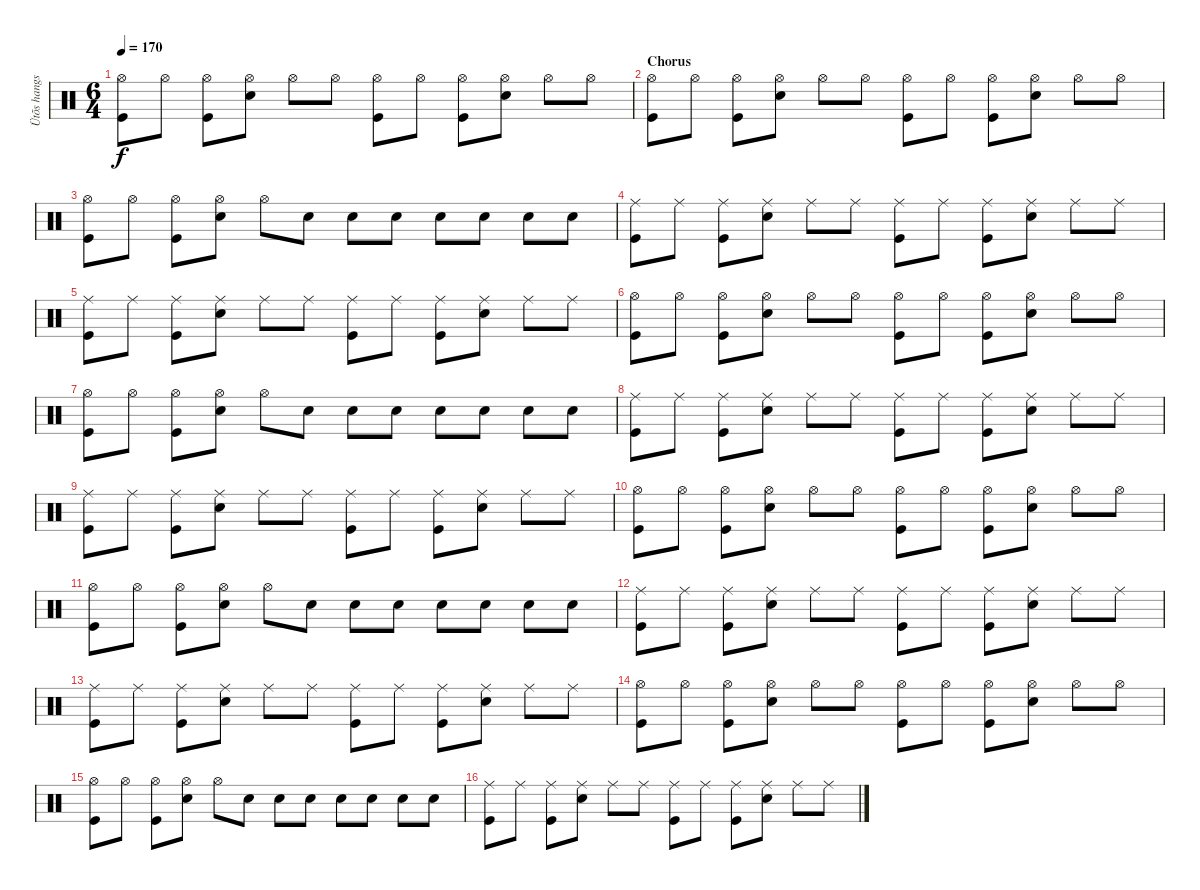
\track ("Ütõs hangszer" "Ütõs hangs") {instrument percussion}
\staff {score}
\articulation defaults
\ts (6 4)
\tempo 170
\clef neutral
\ks c
("Hi-Hat (open)" "Kick (hit)").8{dy f} "Hi-Hat (open)".8 ("Hi-Hat (open)" "Kick (hit)").8 ("Hi-Hat (open)" "Snare (hit) 2").8 "Hi-Hat (open)".8 "Hi-Hat (open)".8 ("Hi-Hat (open)" "Kick (hit)").8 "Hi-Hat (open)".8 ("Hi-Hat (open)" "Kick (hit)").8 ("Hi-Hat (open)" "Snare (hit) 2").8 "Hi-Hat (open)".8 "Hi-Hat (open)".8 |
\section ("" "Chorus")
("Hi-Hat (open)" "Kick (hit)").8 "Hi-Hat (open)".8 ("Hi-Hat (open)" "Kick (hit)").8 ("Hi-Hat (open)" "Snare (hit) 2").8 "Hi-Hat (open)".8 "Hi-Hat (open)".8 ("Hi-Hat (open)" "Kick (hit)").8 "Hi-Hat (open)".8 ("Hi-Hat (open)" "Kick (hit)").8 ("Hi-Hat (open)" "Snare (hit) 2").8 "Hi-Hat (open)".8 "Hi-Hat (open)".8 |
("Hi-Hat (open)" "Kick (hit)").8 "Hi-Hat (open)".8 ("Hi-Hat (open)" "Kick (hit)").8 ("Hi-Hat (open)" "Snare (hit) 2").8 "Hi-Hat (open)".8 "Snare (hit) 2".8 "Snare (hit) 2".8 "Snare (hit) 2".8 "Snare (hit) 2".8 "Snare (hit) 2".8 "Snare (hit) 2".8 "Snare (hit) 2".8 |
("Ride (middle)" "Kick (hit)").8 "Ride (middle)".8 ("Ride (middle)" "Kick (hit)").8 ("Ride (middle)" "Snare (hit) 2").8 "Ride (middle)".8 "Ride (middle)".8 ("Ride (middle)" "Kick (hit)").8 "Ride (middle)".8 ("Ride (middle)" "Kick (hit)").8 ("Ride (middle)" "Snare (hit) 2").8 "Ride (middle)".8 "Ride (middle)".8 |
("Ride (middle)" "Kick (hit)").8 "Ride (middle)".8 ("Ride (middle)" "Kick (hit)").8 ("Ride (middle)" "Snare (hit) 2").8 "Ride (middle)".8 "Ride (middle)".8 ("Ride (middle)" "Kick (hit)").8 "Ride (middle)".8 ("Ride (middle)" "Kick (hit)").8 ("Ride (middle)" "Snare (hit) 2").8 "Ride (middle)".8 "Ride (middle)".8 |
("Hi-Hat (open)" "Kick (hit)").8 "Hi-Hat (open)".8 ("Hi-Hat (open)" "Kick (hit)").8 ("Hi-Hat (open)" "Snare (hit) 2").8 "Hi-Hat (open)".8 "Hi-Hat (open)".8 ("Hi-Hat (open)" "Kick (hit)").8 "Hi-Hat (open)".8 ("Hi-Hat (open)" "Kick (hit)").8 ("Hi-Hat (open)" "Snare (hit) 2").8 "Hi-Hat (open)".8 "Hi-Hat (open)".8 |
("Hi-Hat (open)" "Kick (hit)").8 "Hi-Hat (open)".8 ("Hi-Hat (open)" "Kick (hit)").8 ("Hi-Hat (open)" "Snare (hit) 2").8 "Hi-Hat (open)".8 "Snare (hit) 2".8 "Snare (hit) 2".8 "Snare (hit) 2".8 "Snare (hit) 2".8 "Snare (hit) 2".8 "Snare (hit) 2".8 "Snare (hit) 2".8 |
("Ride (middle)" "Kick (hit)").8 "Ride (middle)".8 ("Ride (middle)" "Kick (hit)").8 ("Ride (middle)" "Snare (hit) 2").8 "Ride (middle)".8 "Ride (middle)".8 ("Ride (middle)" "Kick (hit)").8 "Ride (middle)".8 ("Ride (middle)" "Kick (hit)").8 ("Ride (middle)" "Snare (hit) 2").8 "Ride (middle)".8 "Ride (middle)".8 |
("Ride (middle)" "Kick (hit)").8 "Ride (middle)".8 ("Ride (middle)" "Kick (hit)").8 ("Ride (middle)" "Snare (hit) 2").8 "Ride (middle)".8 "Ride (middle)".8 ("Ride (middle)" "Kick (hit)").8 "Ride (middle)".8 ("Ride (middle)" "Kick (hit)").8 ("Ride (middle)" "Snare (hit) 2").8 "Ride (middle)".8 "Ride (middle)".8 |
("Hi-Hat (open)" "Kick (hit)").8 "Hi-Hat (open)".8 ("Hi-Hat (open)" "Kick (hit)").8 ("Hi-Hat (open)" "Snare (hit) 2").8 "Hi-Hat (open)".8 "Hi-Hat (open)".8 ("Hi-Hat (open)" "Kick (hit)").8 "Hi-Hat (open)".8 ("Hi-Hat (open)" "Kick (hit)").8 ("Hi-Hat (open)" "Snare (hit) 2").8 "Hi-Hat (open)".8 "Hi-Hat (open)".8 |
("Hi-Hat (open)" "Kick (hit)").8 "Hi-Hat (open)".8 ("Hi-Hat (open)" "Kick (hit)").8 ("Hi-Hat (open)" "Snare (hit) 2").8 "Hi-Hat (open)".8 "Snare (hit) 2".8 "Snare (hit) 2".8 "Snare (hit) 2".8 "Snare (hit) 2".8 "Snare (hit) 2".8 "Snare (hit) 2".8 "Snare (hit) 2".8 |
("Ride (middle)" "Kick (hit)").8 "Ride (middle)".8 ("Ride (middle)" "Kick (hit)").8 ("Ride (middle)" "Snare (hit) 2").8 "Ride (middle)".8 "Ride (middle)".8 ("Ride (middle)" "Kick (hit)").8 "Ride (middle)".8 ("Ride (middle)" "Kick (hit)").8 ("Ride (middle)" "Snare (hit) 2").8 "Ride (middle)".8 "Ride (middle)".8 |
("Ride (middle)" "Kick (hit)").8 "Ride (middle)".8 ("Ride (middle)" "Kick (hit)").8 ("Ride (middle)" "Snare (hit) 2").8 "Ride (middle)".8 "Ride (middle)".8 ("Ride (middle)" "Kick (hit)").8 "Ride (middle)".8 ("Ride (middle)" "Kick (hit)").8 ("Ride (middle)" "Snare (hit) 2").8 "Ride (middle)".8 "Ride (middle)".8 |
("Hi-Hat (open)" "Kick (hit)").8 "Hi-Hat (open)".8 ("Hi-Hat (open)" "Kick (hit)").8 ("Hi-Hat (open)" "Snare (hit) 2").8 "Hi-Hat (open)".8 "Hi-Hat (open)".8 ("Hi-Hat (open)" "Kick (hit)").8 "Hi-Hat (open)".8 ("Hi-Hat (open)" "Kick (hit)").8 ("Hi-Hat (open)" "Snare (hit) 2").8 "Hi-Hat (open)".8 "Hi-Hat (open)".8 |
("Hi-Hat (open)" "Kick (hit)").8 "Hi-Hat (open)".8 ("Hi-Hat (open)" "Kick (hit)").8 ("Hi-Hat (open)" "Snare (hit) 2").8 "Hi-Hat (open)".8 "Snare (hit) 2".8 "Snare (hit) 2".8 "Snare (hit) 2".8 "Snare (hit) 2".8 "Snare (hit) 2".8 "Snare (hit) 2".8 "Snare (hit) 2".8 |
("Ride (middle)" "Kick (hit)").8 "Ride (middle)".8 ("Ride (middle)" "Kick (hit)").8 ("Ride (middle)" "Snare (hit) 2").8 "Ride (middle)".8 "Ride (middle)".8 ("Ride (middle)" "Kick (hit)").8 "Ride (middle)".8 ("Ride (middle)" "Kick (hit)").8 ("Ride (middle)" "Snare (hit) 2").8 "Ride (middle)".8 "Ride (middle)".8
